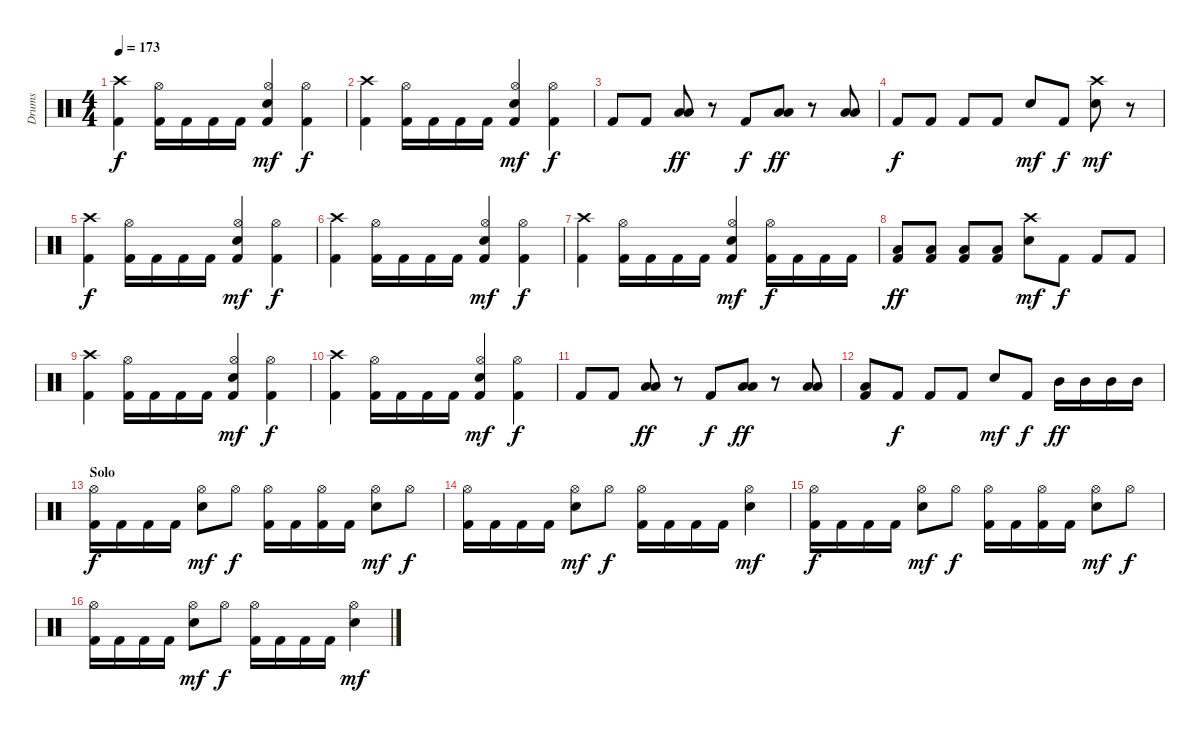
\track ("Drums" "Drums") {instrument percussion}
\staff {score}
\articulation defaults
\ts (4 4)
\tempo 173
\clef neutral
\ks c
("Crash high (hit)" "Kick (hit) 2").4{dy f} ("Hi-Hat (open)" "Kick (hit) 2").16 "Kick (hit) 2".16 "Kick (hit) 2".16 "Kick (hit) 2".16 ("Hi-Hat (open)" "Snare (hit) 2" "Kick (hit) 2").4{dy mf} ("Hi-Hat (open)" "Kick (hit) 2").4{dy f} |
("Crash high (hit)" "Kick (hit) 2").4 ("Hi-Hat (open)" "Kick (hit) 2").16 "Kick (hit) 2".16 "Kick (hit) 2".16 "Kick (hit) 2".16 ("Hi-Hat (open)" "Snare (hit) 2" "Kick (hit) 2").4{dy mf} ("Hi-Hat (open)" "Kick (hit) 2").4{dy f} |
"Kick (hit) 2".8 "Kick (hit) 2".8 ("Low Tom (hit)" "Low Floor Tom (hit)").8{dy ff} r.8 "Kick (hit) 2".8{dy f} ("Low Tom (hit)" "Low Floor Tom (hit)").8{dy ff} r.8 ("Low Tom (hit)" "Low Floor Tom (hit)").8 |
"Kick (hit) 2".8{dy f} "Kick (hit) 2".8 "Kick (hit) 2".8 "Kick (hit) 2".8 "Snare (hit) 2".8{dy mf} "Kick (hit) 2".8{dy f} ("Crash high (hit)" "Snare (hit) 2").8{dy mf} r.8 |
("Crash high (hit)" "Kick (hit) 2").4{dy f} ("Hi-Hat (open)" "Kick (hit) 2").16 "Kick (hit) 2".16 "Kick (hit) 2".16 "Kick (hit) 2".16 ("Hi-Hat (open)" "Snare (hit) 2" "Kick (hit) 2").4{dy mf} ("Hi-Hat (open)" "Kick (hit) 2").4{dy f} |
("Crash high (hit)" "Kick (hit) 2").4 ("Hi-Hat (open)" "Kick (hit) 2").16 "Kick (hit) 2".16 "Kick (hit) 2".16 "Kick (hit) 2".16 ("Hi-Hat (open)" "Snare (hit) 2" "Kick (hit) 2").4{dy mf} ("Hi-Hat (open)" "Kick (hit) 2").4{dy f} |
("Crash high (hit)" "Kick (hit) 2").4 ("Hi-Hat (open)" "Kick (hit) 2").16 "Kick (hit) 2".16 "Kick (hit) 2".16 "Kick (hit) 2".16 ("Hi-Hat (open)" "Snare (hit) 2" "Kick (hit) 2").4{dy mf} ("Hi-Hat (open)" "Kick (hit) 2").16{dy f} "Kick (hit) 2".16 "Kick (hit) 2".16 "Kick (hit) 2".16 |
("Low Tom (hit)" "Kick (hit) 2").8{dy ff} ("Low Tom (hit)" "Kick (hit) 2").8 ("Low Tom (hit)" "Kick (hit) 2").8 ("Low Tom (hit)" "Kick (hit) 2").8 ("Crash high (hit)" "Snare (hit) 2").8{dy mf} "Kick (hit) 2".8{dy f} "Kick (hit) 2".8 "Kick (hit) 2".8 |
("Crash high (hit)" "Kick (hit) 2").4 ("Hi-Hat (open)" "Kick (hit) 2").16 "Kick (hit) 2".16 "Kick (hit) 2".16 "Kick (hit) 2".16 ("Hi-Hat (open)" "Snare (hit) 2" "Kick (hit) 2").4{dy mf} ("Hi-Hat (open)" "Kick (hit) 2").4{dy f} |
("Crash high (hit)" "Kick (hit) 2").4 ("Hi-Hat (open)" "Kick (hit) 2").16 "Kick (hit) 2".16 "Kick (hit) 2".16 "Kick (hit) 2".16 ("Hi-Hat (open)" "Snare (hit) 2" "Kick (hit) 2").4{dy mf} ("Hi-Hat (open)" "Kick (hit) 2").4{dy f} |
"Kick (hit) 2".8 "Kick (hit) 2".8 ("Low Tom (hit)" "Low Floor Tom (hit)").8{dy ff} r.8 "Kick (hit) 2".8{dy f} ("Low Tom (hit)" "Low Floor Tom (hit)").8{dy ff} r.8 ("Low Tom (hit)" "Low Floor Tom (hit)").8 |
("Low Tom (hit)" "Kick (hit) 2").8 "Kick (hit) 2".8{dy f} "Kick (hit) 2".8 "Kick (hit) 2".8 "Snare (hit) 2".8{dy mf} "Kick (hit) 2".8{dy f} "Mid Tom (hit)".16{dy ff} "Mid Tom (hit)".16 "Mid Tom (hit)".16 "Mid Tom (hit)".16 |
\section ("" "Solo")
("Hi-Hat (open)" "Kick (hit) 2").16{dy f} "Kick (hit) 2".16 "Kick (hit) 2".16 "Kick (hit) 2".16 ("Hi-Hat (open)" "Snare (hit) 2").8{dy mf} "Hi-Hat (open)".8{dy f} ("Hi-Hat (open)" "Kick (hit) 2").16 "Kick (hit) 2".16 ("Hi-Hat (open)" "Kick (hit) 2").16 "Kick (hit) 2".16 ("Hi-Hat (open)" "Snare (hit) 2").8{dy mf} "Hi-Hat (open)".8{dy f} |
("Hi-Hat (open)" "Kick (hit) 2").16 "Kick (hit) 2".16 "Kick (hit) 2".16 "Kick (hit) 2".16 ("Hi-Hat (open)" "Snare (hit) 2").8{dy mf} "Hi-Hat (open)".8{dy f} ("Hi-Hat (open)" "Kick (hit) 2").16 "Kick (hit) 2".16 "Kick (hit) 2".16 "Kick (hit) 2".16 ("Hi-Hat (open)" "Snare (hit) 2").4{dy mf} |
("Hi-Hat (open)" "Kick (hit) 2").16{dy f} "Kick (hit) 2".16 "Kick (hit) 2".16 "Kick (hit) 2".16 ("Hi-Hat (open)" "Snare (hit) 2").8{dy mf} "Hi-Hat (open)".8{dy f} ("Hi-Hat (open)" "Kick (hit) 2").16 "Kick (hit) 2".16 ("Hi-Hat (open)" "Kick (hit) 2").16 "Kick (hit) 2".16 ("Hi-Hat (open)" "Snare (hit) 2").8{dy mf} "Hi-Hat (open)".8{dy f} |
("Hi-Hat (open)" "Kick (hit) 2").16 "Kick (hit) 2".16 "Kick (hit) 2".16 "Kick (hit) 2".16 ("Hi-Hat (open)" "Snare (hit) 2").8{dy mf} "Hi-Hat (open)".8{dy f} ("Hi-Hat (open)" "Kick (hit) 2").16 "Kick (hit) 2".16 "Kick (hit) 2".16 "Kick (hit) 2".16 ("Hi-Hat (open)" "Snare (hit) 2").4{dy mf}
